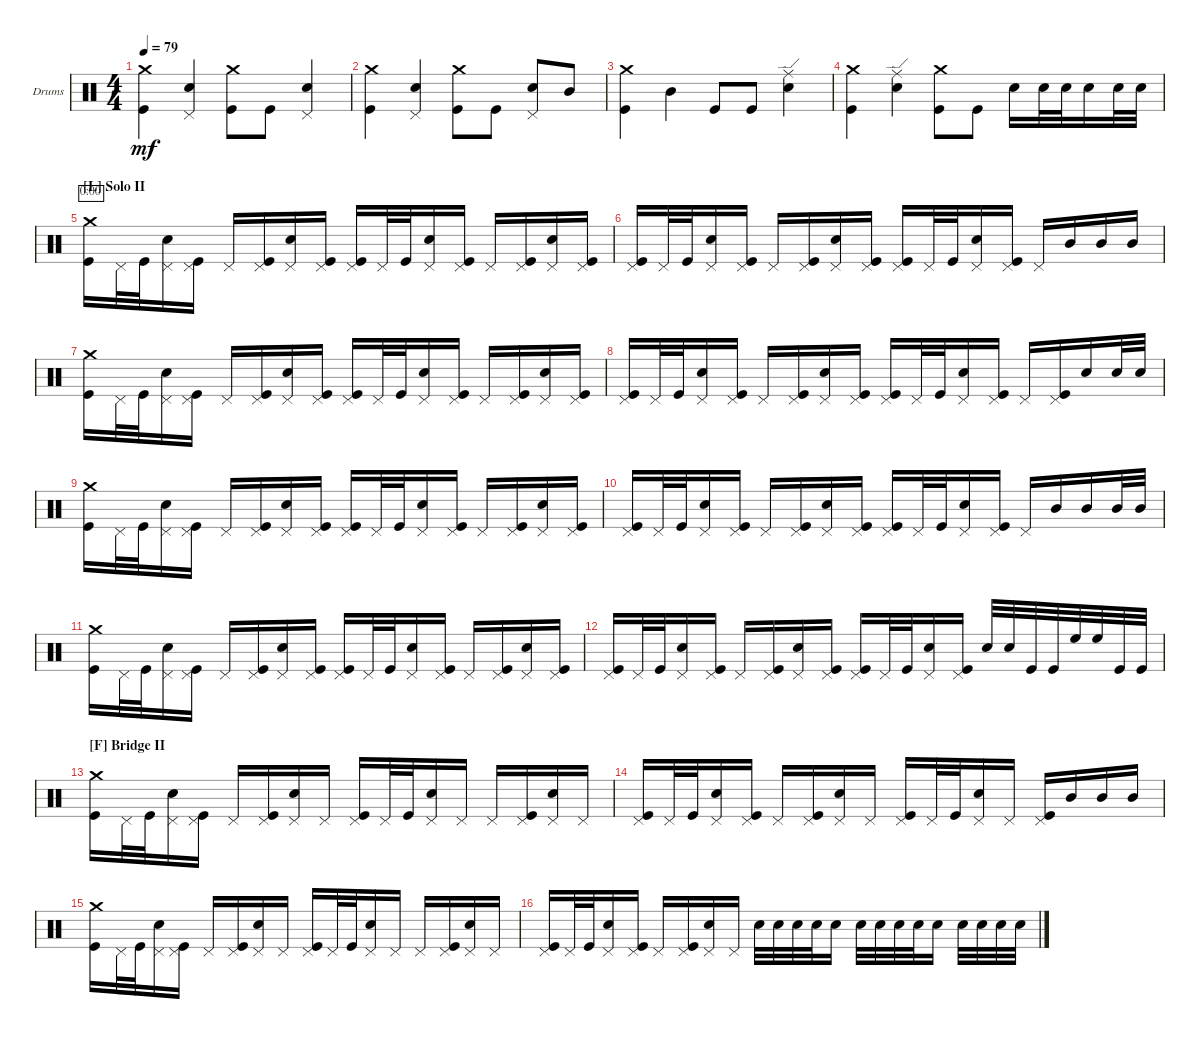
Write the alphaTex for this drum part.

\defaultSystemsLayout 4
\bracketExtendMode groupsimilarinstruments
\firstSystemTrackNameOrientation horizontal
\otherSystemsTrackNameOrientation horizontal
\track ("Drums" "Drums") {instrument percussion}
\staff {score}
\articulation defaults
\ts (4 4)
\tempo 79
\clef neutral
\ks c
("Kick (hit)" "Crash medium (hit)").4{dy mf} ("Snare (hit) 2" "Pedal Hi-Hat (hit)").4 ("Kick (hit)" "Crash medium (hit)").8 "Kick (hit)".8 ("Snare (hit) 2" "Pedal Hi-Hat (hit)").4 |
("Kick (hit)" "Crash medium (hit)").4 ("Snare (hit) 2" "Pedal Hi-Hat (hit)").4 ("Kick (hit)" "Crash medium (hit)").8 "Kick (hit)".8 ("Snare (hit) 2" "Pedal Hi-Hat (hit)").8 "Mid Tom (hit)".8 |
("Kick (hit)" "Crash medium (hit)").4 "Mid Tom (hit)".4 "Kick (hit)".8 "Kick (hit)".8 ("Snare (hit) 2" "Ride (edge)").4 |
("Kick (hit)" "Crash medium (hit)").4 ("Snare (hit) 2" "Ride (edge)").4 ("Kick (hit)" "Crash medium (hit)").8 "Kick (hit)".8 "Snare (hit) 2".16 "Snare (hit) 2".32 "Snare (hit) 2".32 "Snare (hit) 2".16 "Snare (hit) 2".32 "Snare (hit) 2".32 |
\section ("L" "Solo II")
("Kick (hit)" "Crash medium (hit)").16{timer} "Pedal Hi-Hat (hit)".32 "Kick (hit)".32{beam merge} ("Pedal Hi-Hat (hit)" "Snare (hit) 2").16 ("Pedal Hi-Hat (hit)" "Kick (hit)").16 "Pedal Hi-Hat (hit)".16 ("Pedal Hi-Hat (hit)" "Kick (hit)").16{beam merge} ("Pedal Hi-Hat (hit)" "Snare (hit) 2").16 ("Pedal Hi-Hat (hit)" "Kick (hit)").16 ("Kick (hit)" "Pedal Hi-Hat (hit)").16 "Pedal Hi-Hat (hit)".32 "Kick (hit)".32{beam merge} ("Pedal Hi-Hat (hit)" "Snare (hit) 2").16 ("Pedal Hi-Hat (hit)" "Kick (hit)").16 "Pedal Hi-Hat (hit)".16 ("Pedal Hi-Hat (hit)" "Kick (hit)").16{beam merge} ("Pedal Hi-Hat (hit)" "Snare (hit) 2").16 ("Pedal Hi-Hat (hit)" "Kick (hit)").16 |
("Kick (hit)" "Pedal Hi-Hat (hit)").16 "Pedal Hi-Hat (hit)".32 "Kick (hit)".32{beam merge} ("Pedal Hi-Hat (hit)" "Snare (hit) 2").16 ("Pedal Hi-Hat (hit)" "Kick (hit)").16 "Pedal Hi-Hat (hit)".16 ("Pedal Hi-Hat (hit)" "Kick (hit)").16{beam merge} ("Pedal Hi-Hat (hit)" "Snare (hit) 2").16 ("Pedal Hi-Hat (hit)" "Kick (hit)").16 ("Kick (hit)" "Pedal Hi-Hat (hit)").16 "Pedal Hi-Hat (hit)".32 "Kick (hit)".32{beam merge} ("Pedal Hi-Hat (hit)" "Snare (hit) 2").16 ("Pedal Hi-Hat (hit)" "Kick (hit)").16 "Pedal Hi-Hat (hit)".16 "Mid Tom (hit)".16{beam merge} "Mid Tom (hit)".16 "Mid Tom (hit)".16 |
("Kick (hit)" "Crash medium (hit)").16 "Pedal Hi-Hat (hit)".32 "Kick (hit)".32{beam merge} ("Pedal Hi-Hat (hit)" "Snare (hit) 2").16 ("Pedal Hi-Hat (hit)" "Kick (hit)").16 "Pedal Hi-Hat (hit)".16 ("Pedal Hi-Hat (hit)" "Kick (hit)").16{beam merge} ("Pedal Hi-Hat (hit)" "Snare (hit) 2").16 ("Pedal Hi-Hat (hit)" "Kick (hit)").16 ("Kick (hit)" "Pedal Hi-Hat (hit)").16 "Pedal Hi-Hat (hit)".32 "Kick (hit)".32{beam merge} ("Pedal Hi-Hat (hit)" "Snare (hit) 2").16 ("Pedal Hi-Hat (hit)" "Kick (hit)").16 "Pedal Hi-Hat (hit)".16 ("Pedal Hi-Hat (hit)" "Kick (hit)").16{beam merge} ("Pedal Hi-Hat (hit)" "Snare (hit) 2").16 ("Pedal Hi-Hat (hit)" "Kick (hit)").16 |
("Kick (hit)" "Pedal Hi-Hat (hit)").16 "Pedal Hi-Hat (hit)".32 "Kick (hit)".32{beam merge} ("Pedal Hi-Hat (hit)" "Snare (hit) 2").16 ("Pedal Hi-Hat (hit)" "Kick (hit)").16 "Pedal Hi-Hat (hit)".16 ("Pedal Hi-Hat (hit)" "Kick (hit)").16{beam merge} ("Pedal Hi-Hat (hit)" "Snare (hit) 2").16 ("Pedal Hi-Hat (hit)" "Kick (hit)").16 ("Kick (hit)" "Pedal Hi-Hat (hit)").16 "Pedal Hi-Hat (hit)".32 "Kick (hit)".32{beam merge} ("Pedal Hi-Hat (hit)" "Snare (hit) 2").16 ("Pedal Hi-Hat (hit)" "Kick (hit)").16 "Pedal Hi-Hat (hit)".16 ("Pedal Hi-Hat (hit)" "Kick (hit)").16{beam merge} "Snare (hit) 2".16 "Snare (hit) 2".32 "Snare (hit) 2".32 |
("Kick (hit)" "Crash medium (hit)").16 "Pedal Hi-Hat (hit)".32 "Kick (hit)".32{beam merge} ("Pedal Hi-Hat (hit)" "Snare (hit) 2").16 ("Pedal Hi-Hat (hit)" "Kick (hit)").16 "Pedal Hi-Hat (hit)".16 ("Pedal Hi-Hat (hit)" "Kick (hit)").16{beam merge} ("Pedal Hi-Hat (hit)" "Snare (hit) 2").16 ("Pedal Hi-Hat (hit)" "Kick (hit)").16 ("Kick (hit)" "Pedal Hi-Hat (hit)").16 "Pedal Hi-Hat (hit)".32 "Kick (hit)".32{beam merge} ("Pedal Hi-Hat (hit)" "Snare (hit) 2").16 ("Pedal Hi-Hat (hit)" "Kick (hit)").16 "Pedal Hi-Hat (hit)".16 ("Pedal Hi-Hat (hit)" "Kick (hit)").16{beam merge} ("Pedal Hi-Hat (hit)" "Snare (hit) 2").16 ("Pedal Hi-Hat (hit)" "Kick (hit)").16 |
("Kick (hit)" "Pedal Hi-Hat (hit)").16 "Pedal Hi-Hat (hit)".32 "Kick (hit)".32{beam merge} ("Pedal Hi-Hat (hit)" "Snare (hit) 2").16 ("Pedal Hi-Hat (hit)" "Kick (hit)").16 "Pedal Hi-Hat (hit)".16 ("Pedal Hi-Hat (hit)" "Kick (hit)").16{beam merge} ("Pedal Hi-Hat (hit)" "Snare (hit) 2").16 ("Pedal Hi-Hat (hit)" "Kick (hit)").16 ("Kick (hit)" "Pedal Hi-Hat (hit)").16 "Pedal Hi-Hat (hit)".32 "Kick (hit)".32{beam merge} ("Pedal Hi-Hat (hit)" "Snare (hit) 2").16 ("Pedal Hi-Hat (hit)" "Kick (hit)").16 "Pedal Hi-Hat (hit)".16 "Mid Tom (hit)".16{beam merge} "Mid Tom (hit)".16 "Mid Tom (hit)".32 "Mid Tom (hit)".32 |
("Kick (hit)" "Crash medium (hit)").16 "Pedal Hi-Hat (hit)".32 "Kick (hit)".32{beam merge} ("Pedal Hi-Hat (hit)" "Snare (hit) 2").16 ("Pedal Hi-Hat (hit)" "Kick (hit)").16 "Pedal Hi-Hat (hit)".16 ("Pedal Hi-Hat (hit)" "Kick (hit)").16{beam merge} ("Pedal Hi-Hat (hit)" "Snare (hit) 2").16 ("Pedal Hi-Hat (hit)" "Kick (hit)").16 ("Kick (hit)" "Pedal Hi-Hat (hit)").16 "Pedal Hi-Hat (hit)".32 "Kick (hit)".32{beam merge} ("Pedal Hi-Hat (hit)" "Snare (hit) 2").16 ("Pedal Hi-Hat (hit)" "Kick (hit)").16 "Pedal Hi-Hat (hit)".16 ("Pedal Hi-Hat (hit)" "Kick (hit)").16{beam merge} ("Pedal Hi-Hat (hit)" "Snare (hit) 2").16 ("Pedal Hi-Hat (hit)" "Kick (hit)").16 |
("Kick (hit)" "Pedal Hi-Hat (hit)").16 "Pedal Hi-Hat (hit)".32 "Kick (hit)".32{beam merge} ("Pedal Hi-Hat (hit)" "Snare (hit) 2").16 ("Pedal Hi-Hat (hit)" "Kick (hit)").16 "Pedal Hi-Hat (hit)".16 ("Pedal Hi-Hat (hit)" "Kick (hit)").16{beam merge} ("Pedal Hi-Hat (hit)" "Snare (hit) 2").16 ("Pedal Hi-Hat (hit)" "Kick (hit)").16 ("Kick (hit)" "Pedal Hi-Hat (hit)").16 "Pedal Hi-Hat (hit)".32 "Kick (hit)".32{beam merge} ("Pedal Hi-Hat (hit)" "Snare (hit) 2").16 ("Pedal Hi-Hat (hit)" "Kick (hit)").16 "Snare (hit) 2".32 "Snare (hit) 2".32{beam merge} "Kick (hit)".32 "Kick (hit)".32{beam merge} "High Floor Tom (hit)".32 "High Floor Tom (hit)".32 "Kick (hit)".32{beam merge} "Kick (hit)".32 |
\section ("F" "Bridge II")
("Kick (hit)" "Crash medium (hit)").16 "Pedal Hi-Hat (hit)".32 "Kick (hit)".32{beam merge} ("Pedal Hi-Hat (hit)" "Snare (hit) 2").16 ("Pedal Hi-Hat (hit)" "Kick (hit)").16 "Pedal Hi-Hat (hit)".16 ("Pedal Hi-Hat (hit)" "Kick (hit)").16{beam merge} ("Pedal Hi-Hat (hit)" "Snare (hit) 2").16 "Pedal Hi-Hat (hit)".16 ("Kick (hit)" "Pedal Hi-Hat (hit)").16 "Pedal Hi-Hat (hit)".32 "Kick (hit)".32{beam merge} ("Pedal Hi-Hat (hit)" "Snare (hit) 2").16 "Pedal Hi-Hat (hit)".16 "Pedal Hi-Hat (hit)".16 ("Pedal Hi-Hat (hit)" "Kick (hit)").16{beam merge} ("Pedal Hi-Hat (hit)" "Snare (hit) 2").16 "Pedal Hi-Hat (hit)".16 |
("Kick (hit)" "Pedal Hi-Hat (hit)").16 "Pedal Hi-Hat (hit)".32 "Kick (hit)".32{beam merge} ("Pedal Hi-Hat (hit)" "Snare (hit) 2").16 ("Pedal Hi-Hat (hit)" "Kick (hit)").16 "Pedal Hi-Hat (hit)".16 ("Pedal Hi-Hat (hit)" "Kick (hit)").16{beam merge} ("Pedal Hi-Hat (hit)" "Snare (hit) 2").16 "Pedal Hi-Hat (hit)".16 ("Kick (hit)" "Pedal Hi-Hat (hit)").16 "Pedal Hi-Hat (hit)".32 "Kick (hit)".32{beam merge} ("Pedal Hi-Hat (hit)" "Snare (hit) 2").16 "Pedal Hi-Hat (hit)".16 ("Pedal Hi-Hat (hit)" "Kick (hit)").16 "Mid Tom (hit)".16{beam merge} "Mid Tom (hit)".16 "Mid Tom (hit)".16 |
("Kick (hit)" "Crash medium (hit)").16 "Pedal Hi-Hat (hit)".32 "Kick (hit)".32{beam merge} ("Pedal Hi-Hat (hit)" "Snare (hit) 2").16 ("Pedal Hi-Hat (hit)" "Kick (hit)").16 "Pedal Hi-Hat (hit)".16 ("Pedal Hi-Hat (hit)" "Kick (hit)").16{beam merge} ("Pedal Hi-Hat (hit)" "Snare (hit) 2").16 "Pedal Hi-Hat (hit)".16 ("Kick (hit)" "Pedal Hi-Hat (hit)").16 "Pedal Hi-Hat (hit)".32 "Kick (hit)".32{beam merge} ("Pedal Hi-Hat (hit)" "Snare (hit) 2").16 "Pedal Hi-Hat (hit)".16 "Pedal Hi-Hat (hit)".16 ("Pedal Hi-Hat (hit)" "Kick (hit)").16{beam merge} ("Pedal Hi-Hat (hit)" "Snare (hit) 2").16 "Pedal Hi-Hat (hit)".16 |
("Kick (hit)" "Pedal Hi-Hat (hit)").16 "Pedal Hi-Hat (hit)".32 "Kick (hit)".32{beam merge} ("Pedal Hi-Hat (hit)" "Snare (hit) 2").16 ("Pedal Hi-Hat (hit)" "Kick (hit)").16 "Pedal Hi-Hat (hit)".16 ("Pedal Hi-Hat (hit)" "Kick (hit)").16{beam merge} ("Pedal Hi-Hat (hit)" "Snare (hit) 2").16 "Pedal Hi-Hat (hit)".16 "Snare (hit) 2".32 "Snare (hit) 2".32{beam merge} "Snare (hit) 2".32 "Snare (hit) 2".32{beam merge} "Snare (hit) 2".16{beam split} "Snare (hit) 2".32{beam merge} "Snare (hit) 2".32{beam merge} "Snare (hit) 2".32 "Snare (hit) 2".32{beam merge} "Snare (hit) 2".16{beam split} "Snare (hit) 2".32 "Snare (hit) 2".32 "Snare (hit) 2".32{beam merge} "Snare (hit) 2".32
